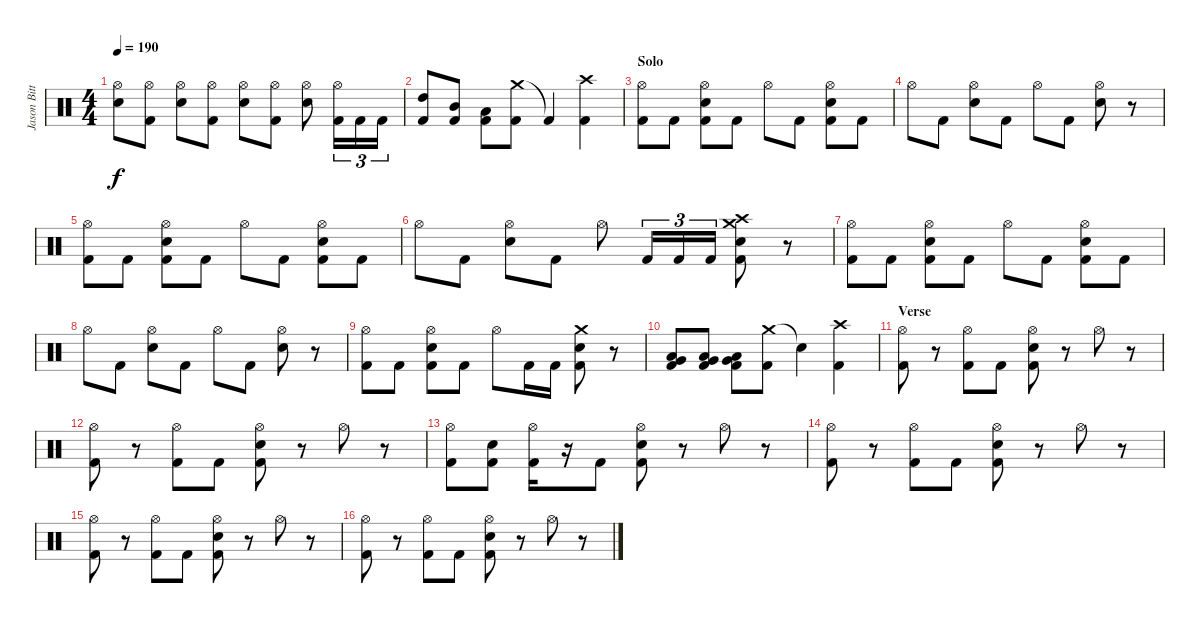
\track ("Jason Bittner" "Jason Bitt") {instrument percussion}
\staff {score}
\articulation defaults
\ts (4 4)
\tempo 190
\clef neutral
\ks c
("Hi-Hat (open)" "Snare (hit) 2").8{dy f} ("Hi-Hat (open)" "Kick (hit) 2").8 ("Hi-Hat (open)" "Snare (hit) 2").8 ("Hi-Hat (open)" "Kick (hit) 2").8 ("Hi-Hat (open)" "Snare (hit) 2").8 ("Hi-Hat (open)" "Kick (hit) 2").8 ("Hi-Hat (open)" "Snare (hit) 2").8 ("Hi-Hat (open)" "Kick (hit) 2").16{tu (3 2)} "Kick (hit) 2".16{tu (3 2)} "Kick (hit) 2".16{tu (3 2)} |
("High Tom (hit)" "Kick (hit) 2").8 ("Mid Tom (hit)" "Kick (hit) 2").8 ("Low Tom (hit)" "Kick (hit) 2").8 ("Crash medium (hit)" "Kick (hit) 2").8 "Kick (hit) 2"{t}.4 ("Crash high (hit)" "Kick (hit) 2").4 |
\section ("" "Solo")
("Hi-Hat (open)" "Kick (hit) 2").8 "Kick (hit) 2".8 ("Hi-Hat (open)" "Snare (hit) 2" "Kick (hit) 2").8 "Kick (hit) 2".8 "Hi-Hat (open)".8 "Kick (hit) 2".8 ("Hi-Hat (open)" "Snare (hit) 2" "Kick (hit) 2").8 "Kick (hit) 2".8 |
"Hi-Hat (open)".8 "Kick (hit) 2".8 ("Hi-Hat (open)" "Snare (hit) 2").8 "Kick (hit) 2".8 "Hi-Hat (open)".8 "Kick (hit) 2".8 ("Hi-Hat (open)" "Snare (hit) 2").8 r.8 |
("Hi-Hat (open)" "Kick (hit) 2").8 "Kick (hit) 2".8 ("Hi-Hat (open)" "Snare (hit) 2" "Kick (hit) 2").8 "Kick (hit) 2".8 "Hi-Hat (open)".8 "Kick (hit) 2".8 ("Hi-Hat (open)" "Snare (hit) 2" "Kick (hit) 2").8 "Kick (hit) 2".8 |
"Hi-Hat (open)".8 "Kick (hit) 2".8 ("Hi-Hat (open)" "Snare (hit) 2").8 "Kick (hit) 2".8 "Hi-Hat (open)".8 "Kick (hit) 2".16{tu (3 2)} "Kick (hit) 2".16{tu (3 2)} "Kick (hit) 2".16{tu (3 2)} ("Crash high (hit)" "Crash medium (hit)" "Snare (hit) 2" "Kick (hit) 2").8 r.8 |
("Hi-Hat (open)" "Kick (hit) 2").8 "Kick (hit) 2".8 ("Hi-Hat (open)" "Snare (hit) 2" "Kick (hit) 2").8 "Kick (hit) 2".8 "Hi-Hat (open)".8 "Kick (hit) 2".8 ("Hi-Hat (open)" "Snare (hit) 2" "Kick (hit) 2").8 "Kick (hit) 2".8 |
"Hi-Hat (open)".8 "Kick (hit) 2".8 ("Hi-Hat (open)" "Snare (hit) 2").8 "Kick (hit) 2".8 "Hi-Hat (open)".8 "Kick (hit) 2".8 ("Hi-Hat (open)" "Snare (hit) 2").8 r.8 |
("Hi-Hat (open)" "Kick (hit) 2").8 "Kick (hit) 2".8 ("Hi-Hat (open)" "Snare (hit) 2" "Kick (hit) 2").8 "Kick (hit) 2".8 "Hi-Hat (open)".8 "Kick (hit) 2".16 "Kick (hit) 2".16 ("Crash medium (hit)" "Snare (hit) 2" "Kick (hit) 2").8 r.8 |
("Low Tom (hit)" "Very Low Tom (hit)" "Kick (hit) 2").8 ("Low Tom (hit)" "Very Low Tom (hit)" "Kick (hit) 2").8 ("Low Tom (hit)" "Very Low Tom (hit)" "Kick (hit) 2").8 ("Crash medium (hit)" "Kick (hit) 2").8 "Snare (hit)"{t}.4 ("Crash high (hit)" "Kick (hit) 2").4 |
\section ("" "Verse")
("Hi-Hat (open)" "Kick (hit) 2").8 r.8 ("Hi-Hat (open)" "Kick (hit) 2").8 "Kick (hit) 2".8 ("Hi-Hat (open)" "Snare (hit) 2" "Kick (hit) 2").8 r.8 "Hi-Hat (open)".8 r.8 |
("Hi-Hat (open)" "Kick (hit) 2").8 r.8 ("Hi-Hat (open)" "Kick (hit) 2").8 "Kick (hit) 2".8 ("Hi-Hat (open)" "Snare (hit) 2" "Kick (hit) 2").8 r.8 "Hi-Hat (open)".8 r.8 |
("Hi-Hat (open)" "Kick (hit) 2").8 ("Snare (hit) 2" "Kick (hit) 2").8 ("Hi-Hat (open)" "Kick (hit) 2").16 r.16 "Kick (hit) 2".8 ("Hi-Hat (open)" "Snare (hit) 2" "Kick (hit) 2").8 r.8 "Hi-Hat (open)".8 r.8 |
("Hi-Hat (open)" "Kick (hit) 2").8 r.8 ("Hi-Hat (open)" "Kick (hit) 2").8 "Kick (hit) 2".8 ("Hi-Hat (open)" "Snare (hit) 2" "Kick (hit) 2").8 r.8 "Hi-Hat (open)".8 r.8 |
("Hi-Hat (open)" "Kick (hit) 2").8 r.8 ("Hi-Hat (open)" "Kick (hit) 2").8 "Kick (hit) 2".8 ("Hi-Hat (open)" "Snare (hit) 2" "Kick (hit) 2").8 r.8 "Hi-Hat (open)".8 r.8 |
("Hi-Hat (open)" "Kick (hit) 2").8 r.8 ("Hi-Hat (open)" "Kick (hit) 2").8 "Kick (hit) 2".8 ("Hi-Hat (open)" "Snare (hit) 2" "Kick (hit) 2").8 r.8 "Hi-Hat (open)".8 r.8
